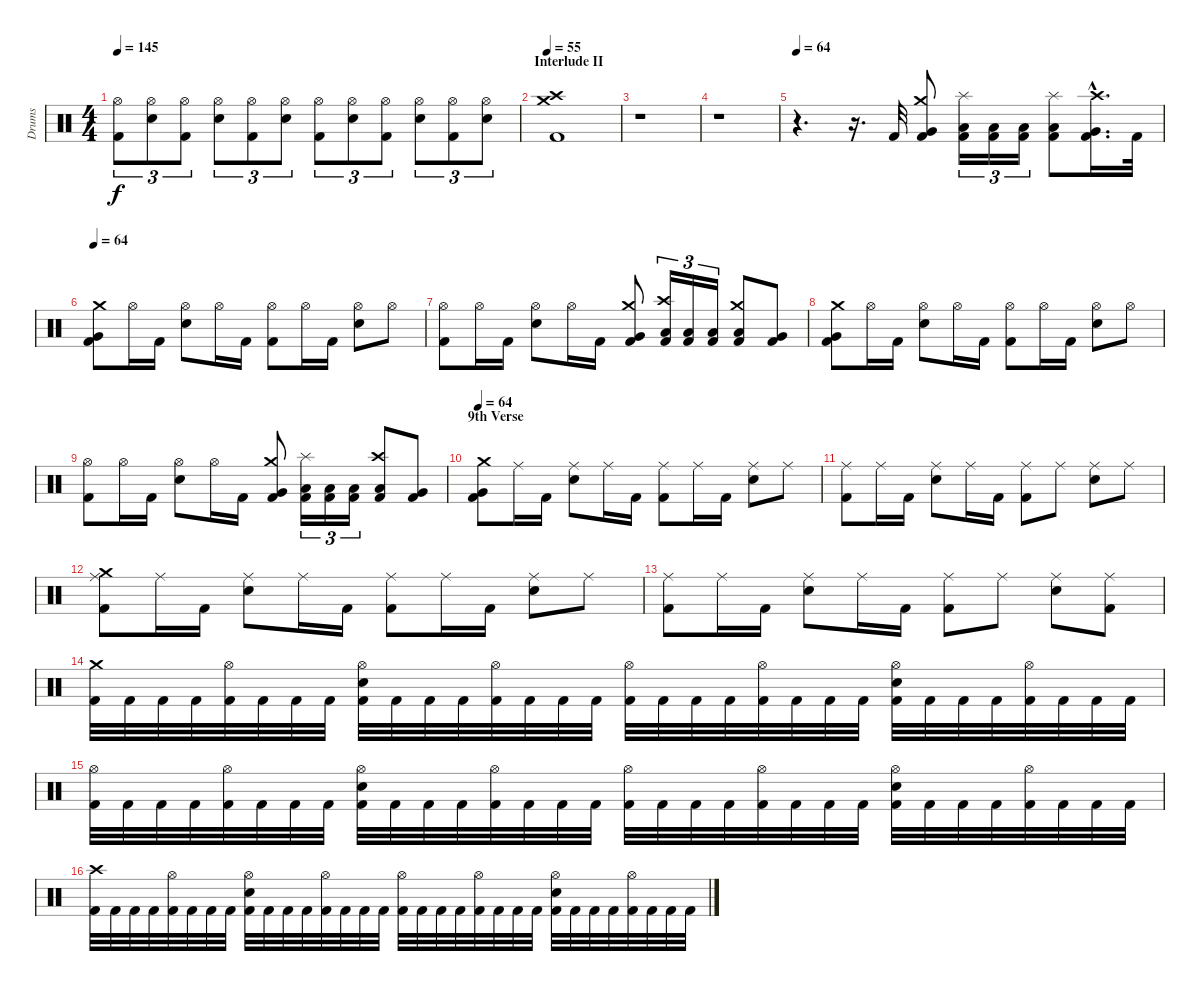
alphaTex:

\track ("Drums" "Drums") {instrument percussion}
\staff {score}
\articulation defaults
\ts (4 4)
\tempo 145
\clef neutral
\ks c
("Kick (hit) 2" "Hi-Hat (open)").8{tu (3 2) dy f} ("Snare (hit) 2" "Hi-Hat (open)").8{tu (3 2)} ("Kick (hit) 2" "Hi-Hat (open)").8{tu (3 2)} ("Snare (hit) 2" "Hi-Hat (open)").8{tu (3 2)} ("Kick (hit) 2" "Hi-Hat (open)").8{tu (3 2)} ("Snare (hit) 2" "Hi-Hat (open)").8{tu (3 2)} ("Kick (hit) 2" "Hi-Hat (open)").8{tu (3 2)} ("Snare (hit) 2" "Hi-Hat (open)").8{tu (3 2)} ("Kick (hit) 2" "Hi-Hat (open)").8{tu (3 2)} ("Snare (hit) 2" "Hi-Hat (open)").8{tu (3 2)} ("Kick (hit) 2" "Hi-Hat (open)").8{tu (3 2)} ("Snare (hit) 2" "Hi-Hat (open)").8{tu (3 2)} |
\section ("" "Interlude II")
\tempo 55
("Kick (hit) 2" "Crash high (hit)" "Crash medium (hit)").1 |
r.1 |
r.1 |
\tempo 64
r.4{d} r.16{d} "Kick (hit) 2".32 ("Kick (hit) 2" "Very Low Tom (hit)" "Crash medium (hit)").8 ("Kick (hit) 2" "Low Floor Tom (hit)" "Splash (hit)").16{tu (3 2)} ("Kick (hit) 2" "Low Floor Tom (hit)").16{tu (3 2)} ("Kick (hit) 2" "Low Floor Tom (hit)").16{tu (3 2)} ("Kick (hit) 2" "Low Floor Tom (hit)" "Splash (hit)").8 ("Kick (hit) 2"{hac} "Very Low Tom (hit)"{hac} "Crash high (hit)"{hac}).16{d} "Kick (hit) 2".32 |
\tempo 64
("Kick (hit) 2" "Very Low Tom (hit)" "Crash medium (hit)").8 "Hi-Hat (open)".16 "Kick (hit) 2".16 ("Electric Snare (hit)" "Hi-Hat (open)").8 "Hi-Hat (open)".16 "Kick (hit) 2".16 ("Kick (hit) 2" "Hi-Hat (open)").8 "Hi-Hat (open)".16 "Kick (hit) 2".16 ("Electric Snare (hit)" "Hi-Hat (open)").8 "Hi-Hat (open)".8 |
("Kick (hit) 2" "Hi-Hat (open)").8 "Hi-Hat (open)".16 "Kick (hit) 2".16 ("Electric Snare (hit)" "Hi-Hat (open)").8 "Hi-Hat (open)".16 "Kick (hit) 2".16 ("Kick (hit) 2" "Very Low Tom (hit)" "Crash medium (hit)").8 ("Kick (hit) 2" "Low Floor Tom (hit)" "Crash high (hit)").16{tu (3 2)} ("Kick (hit) 2" "Low Floor Tom (hit)").16{tu (3 2)} ("Kick (hit) 2" "Low Floor Tom (hit)").16{tu (3 2)} ("Kick (hit) 2" "Low Floor Tom (hit)" "Crash medium (hit)").8 ("Kick (hit) 2" "Very Low Tom (hit)").8 |
("Kick (hit) 2" "Very Low Tom (hit)" "Crash medium (hit)").8 "Hi-Hat (open)".16 "Kick (hit) 2".16 ("Electric Snare (hit)" "Hi-Hat (open)").8 "Hi-Hat (open)".16 "Kick (hit) 2".16 ("Kick (hit) 2" "Hi-Hat (open)").8 "Hi-Hat (open)".16 "Kick (hit) 2".16 ("Electric Snare (hit)" "Hi-Hat (open)").8 "Hi-Hat (open)".8 |
("Kick (hit) 2" "Hi-Hat (open)").8 "Hi-Hat (open)".16 "Kick (hit) 2".16 ("Electric Snare (hit)" "Hi-Hat (open)").8 "Hi-Hat (open)".16 "Kick (hit) 2".16 ("Kick (hit) 2" "Very Low Tom (hit)" "Crash medium (hit)").8 ("Kick (hit) 2" "Low Floor Tom (hit)" "Splash (hit)").16{tu (3 2)} ("Kick (hit) 2" "Low Floor Tom (hit)").16{tu (3 2)} ("Kick (hit) 2" "Low Floor Tom (hit)").16{tu (3 2)} ("Kick (hit) 2" "Low Floor Tom (hit)" "Crash high (hit)").8 ("Kick (hit) 2" "Very Low Tom (hit)").8 |
\section ("" "9th Verse")
\tempo 64
("Kick (hit) 2" "Very Low Tom (hit)" "Crash medium (hit)").8 "Ride (middle)".16 "Kick (hit) 2".16 ("Electric Snare (hit)" "Ride (middle)").8 "Ride (middle)".16 "Kick (hit) 2".16 ("Kick (hit) 2" "Ride (middle)").8 "Ride (middle)".16 "Kick (hit) 2".16 ("Electric Snare (hit)" "Ride (middle)").8 "Ride (middle)".8 |
("Kick (hit) 2" "Ride (middle)").8 "Ride (middle)".16 "Kick (hit) 2".16 ("Electric Snare (hit)" "Ride (middle)").8 "Ride (middle)".16 "Kick (hit) 2".16 ("Kick (hit) 2" "Ride (middle)").8 "Ride (middle)".8 ("Electric Snare (hit)" "Ride (middle)").8 "Ride (middle)".8 |
("Kick (hit) 2" "Ride (middle)" "Crash medium (hit)").8 "Ride (middle)".16 "Kick (hit) 2".16 ("Electric Snare (hit)" "Ride (middle)").8 "Ride (middle)".16 "Kick (hit) 2".16 ("Kick (hit) 2" "Ride (middle)").8 "Ride (middle)".16 "Kick (hit) 2".16 ("Electric Snare (hit)" "Ride (middle)").8 "Ride (middle)".8 |
("Kick (hit) 2" "Ride (middle)").8 "Ride (middle)".16 "Kick (hit) 2".16 ("Electric Snare (hit)" "Ride (middle)").8 "Ride (middle)".16 "Kick (hit) 2".16 ("Kick (hit) 2" "Ride (middle)").8 "Ride (middle)".8 ("Electric Snare (hit)" "Ride (middle)").8 ("Kick (hit) 2" "Ride (middle)").8 |
("Kick (hit) 2" "Crash medium (hit)").32 "Kick (hit) 2".32 "Kick (hit) 2".32 "Kick (hit) 2".32 ("Kick (hit) 2" "Hi-Hat (open)").32 "Kick (hit) 2".32 "Kick (hit) 2".32 "Kick (hit) 2".32 ("Kick (hit) 2" "Electric Snare (hit)" "Hi-Hat (open)").32 "Kick (hit) 2".32 "Kick (hit) 2".32 "Kick (hit) 2".32 ("Kick (hit) 2" "Hi-Hat (open)").32 "Kick (hit) 2".32 "Kick (hit) 2".32 "Kick (hit) 2".32 ("Kick (hit) 2" "Hi-Hat (open)").32 "Kick (hit) 2".32 "Kick (hit) 2".32 "Kick (hit) 2".32 ("Kick (hit) 2" "Hi-Hat (open)").32 "Kick (hit) 2".32 "Kick (hit) 2".32 "Kick (hit) 2".32 ("Kick (hit) 2" "Electric Snare (hit)" "Hi-Hat (open)").32 "Kick (hit) 2".32 "Kick (hit) 2".32 "Kick (hit) 2".32 ("Kick (hit) 2" "Hi-Hat (open)").32 "Kick (hit) 2".32 "Kick (hit) 2".32 "Kick (hit) 2".32 |
("Kick (hit) 2" "Hi-Hat (open)").32 "Kick (hit) 2".32 "Kick (hit) 2".32 "Kick (hit) 2".32 ("Kick (hit) 2" "Hi-Hat (open)").32 "Kick (hit) 2".32 "Kick (hit) 2".32 "Kick (hit) 2".32 ("Kick (hit) 2" "Electric Snare (hit)" "Hi-Hat (open)").32 "Kick (hit) 2".32 "Kick (hit) 2".32 "Kick (hit) 2".32 ("Kick (hit) 2" "Hi-Hat (open)").32 "Kick (hit) 2".32 "Kick (hit) 2".32 "Kick (hit) 2".32 ("Kick (hit) 2" "Hi-Hat (open)").32 "Kick (hit) 2".32 "Kick (hit) 2".32 "Kick (hit) 2".32 ("Kick (hit) 2" "Hi-Hat (open)").32 "Kick (hit) 2".32 "Kick (hit) 2".32 "Kick (hit) 2".32 ("Kick (hit) 2" "Electric Snare (hit)" "Hi-Hat (open)").32 "Kick (hit) 2".32 "Kick (hit) 2".32 "Kick (hit) 2".32 ("Kick (hit) 2" "Hi-Hat (open)").32 "Kick (hit) 2".32 "Kick (hit) 2".32 "Kick (hit) 2".32 |
("Kick (hit) 2" "Crash high (hit)").32 "Kick (hit) 2".32 "Kick (hit) 2".32 "Kick (hit) 2".32 ("Kick (hit) 2" "Hi-Hat (open)").32 "Kick (hit) 2".32 "Kick (hit) 2".32 "Kick (hit) 2".32 ("Kick (hit) 2" "Electric Snare (hit)" "Hi-Hat (open)").32 "Kick (hit) 2".32 "Kick (hit) 2".32 "Kick (hit) 2".32 ("Kick (hit) 2" "Hi-Hat (open)").32 "Kick (hit) 2".32 "Kick (hit) 2".32 "Kick (hit) 2".32 ("Kick (hit) 2" "Hi-Hat (open)").32 "Kick (hit) 2".32 "Kick (hit) 2".32 "Kick (hit) 2".32 ("Kick (hit) 2" "Hi-Hat (open)").32 "Kick (hit) 2".32 "Kick (hit) 2".32 "Kick (hit) 2".32 ("Kick (hit) 2" "Electric Snare (hit)" "Hi-Hat (open)").32 "Kick (hit) 2".32 "Kick (hit) 2".32 "Kick (hit) 2".32 ("Kick (hit) 2" "Hi-Hat (open)").32 "Kick (hit) 2".32 "Kick (hit) 2".32 "Kick (hit) 2".32
